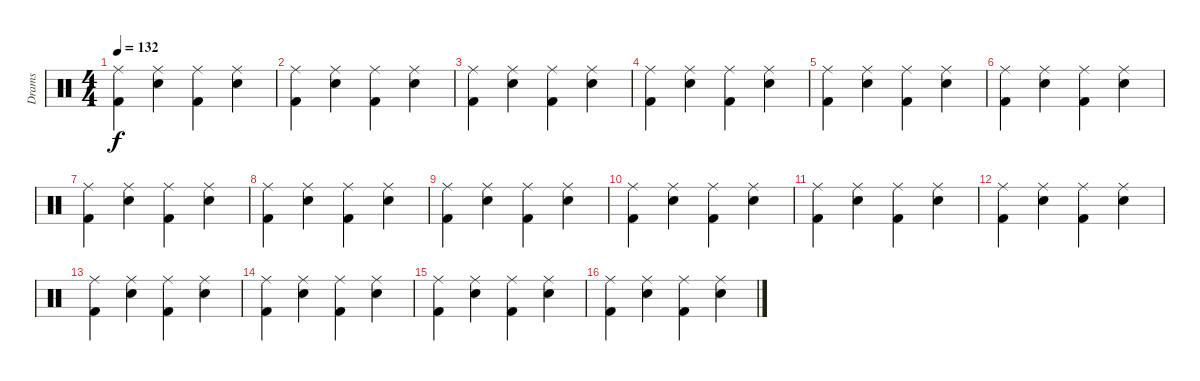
\track ("Drams" "Drams") {instrument percussion}
\staff {score}
\articulation defaults
\ts (4 4)
\tempo 132
\clef neutral
\ks c
("Ride (middle)" "Kick (hit) 2").4{dy f} ("Ride (middle)" "Snare (hit) 2").4 ("Ride (middle)" "Kick (hit) 2").4 ("Ride (middle)" "Snare (hit) 2").4 |
("Ride (middle)" "Kick (hit) 2").4 ("Ride (middle)" "Snare (hit) 2").4 ("Ride (middle)" "Kick (hit) 2").4 ("Ride (middle)" "Snare (hit) 2").4 |
("Ride (middle)" "Kick (hit) 2").4 ("Ride (middle)" "Snare (hit) 2").4 ("Ride (middle)" "Kick (hit) 2").4 ("Ride (middle)" "Snare (hit) 2").4 |
("Ride (middle)" "Kick (hit) 2").4 ("Ride (middle)" "Snare (hit) 2").4 ("Ride (middle)" "Kick (hit) 2").4 ("Ride (middle)" "Snare (hit) 2").4 |
("Ride (middle)" "Kick (hit) 2").4 ("Ride (middle)" "Snare (hit) 2").4 ("Ride (middle)" "Kick (hit) 2").4 ("Ride (middle)" "Snare (hit) 2").4 |
("Ride (middle)" "Kick (hit) 2").4 ("Ride (middle)" "Snare (hit) 2").4 ("Ride (middle)" "Kick (hit) 2").4 ("Ride (middle)" "Snare (hit) 2").4 |
("Ride (middle)" "Kick (hit) 2").4 ("Ride (middle)" "Snare (hit) 2").4 ("Ride (middle)" "Kick (hit) 2").4 ("Ride (middle)" "Snare (hit) 2").4 |
("Ride (middle)" "Kick (hit) 2").4 ("Ride (middle)" "Snare (hit) 2").4 ("Ride (middle)" "Kick (hit) 2").4 ("Ride (middle)" "Snare (hit) 2").4 |
("Ride (middle)" "Kick (hit) 2").4 ("Ride (middle)" "Snare (hit) 2").4 ("Ride (middle)" "Kick (hit) 2").4 ("Ride (middle)" "Snare (hit) 2").4 |
("Ride (middle)" "Kick (hit) 2").4 ("Ride (middle)" "Snare (hit) 2").4 ("Ride (middle)" "Kick (hit) 2").4 ("Ride (middle)" "Snare (hit) 2").4 |
("Ride (middle)" "Kick (hit) 2").4 ("Ride (middle)" "Snare (hit) 2").4 ("Ride (middle)" "Kick (hit) 2").4 ("Ride (middle)" "Snare (hit) 2").4 |
("Ride (middle)" "Kick (hit) 2").4 ("Ride (middle)" "Snare (hit) 2").4 ("Ride (middle)" "Kick (hit) 2").4 ("Ride (middle)" "Snare (hit) 2").4 |
("Ride (middle)" "Kick (hit) 2").4 ("Ride (middle)" "Snare (hit) 2").4 ("Ride (middle)" "Kick (hit) 2").4 ("Ride (middle)" "Snare (hit) 2").4 |
("Ride (middle)" "Kick (hit) 2").4 ("Ride (middle)" "Snare (hit) 2").4 ("Ride (middle)" "Kick (hit) 2").4 ("Ride (middle)" "Snare (hit) 2").4 |
("Ride (middle)" "Kick (hit) 2").4 ("Ride (middle)" "Snare (hit) 2").4 ("Ride (middle)" "Kick (hit) 2").4 ("Ride (middle)" "Snare (hit) 2").4 |
("Ride (middle)" "Kick (hit) 2").4 ("Ride (middle)" "Snare (hit) 2").4 ("Ride (middle)" "Kick (hit) 2").4 ("Ride (middle)" "Snare (hit) 2").4
